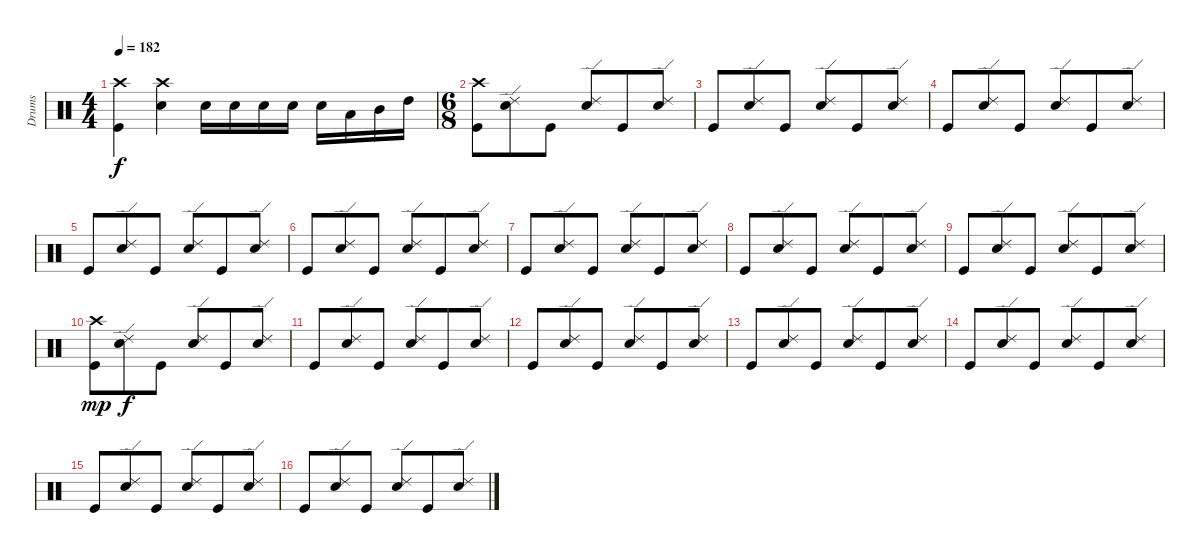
\track ("Drums" "Drums") {instrument percussion}
\staff {score}
\articulation defaults
\ts (4 4)
\tempo 182
\clef neutral
\ks c
("Crash high (hit)" "Kick (hit)").4{dy f} ("Crash high (hit)" "Electric Snare (hit)").4 "Electric Snare (hit)".16 "Electric Snare (hit)".16 "Electric Snare (hit)".16 "Electric Snare (hit)".16 "Electric Snare (hit)".16 "Low Tom (hit)".16 "Mid Tom (hit)".16 "High Tom (hit)".16 |
\ts (6 8)
("Crash high (hit)" "Kick (hit)").8 ("Ride (edge) 2" "Electric Snare (hit)").8 "Kick (hit)".8 ("Ride (edge) 2" "Electric Snare (hit)").8 "Kick (hit)".8 ("Ride (edge) 2" "Electric Snare (hit)").8 |
"Kick (hit)".8 ("Ride (edge) 2" "Electric Snare (hit)").8 "Kick (hit)".8 ("Ride (edge) 2" "Electric Snare (hit)").8 "Kick (hit)".8 ("Ride (edge) 2" "Electric Snare (hit)").8 |
"Kick (hit)".8 ("Ride (edge) 2" "Electric Snare (hit)").8 "Kick (hit)".8 ("Ride (edge) 2" "Electric Snare (hit)").8 "Kick (hit)".8 ("Ride (edge) 2" "Electric Snare (hit)").8 |
"Kick (hit)".8 ("Ride (edge) 2" "Electric Snare (hit)").8 "Kick (hit)".8 ("Ride (edge) 2" "Electric Snare (hit)").8 "Kick (hit)".8 ("Ride (edge) 2" "Electric Snare (hit)").8 |
"Kick (hit)".8 ("Ride (edge) 2" "Electric Snare (hit)").8 "Kick (hit)".8 ("Ride (edge) 2" "Electric Snare (hit)").8 "Kick (hit)".8 ("Ride (edge) 2" "Electric Snare (hit)").8 |
"Kick (hit)".8 ("Ride (edge) 2" "Electric Snare (hit)").8 "Kick (hit)".8 ("Ride (edge) 2" "Electric Snare (hit)").8 "Kick (hit)".8 ("Ride (edge) 2" "Electric Snare (hit)").8 |
"Kick (hit)".8 ("Ride (edge) 2" "Electric Snare (hit)").8 "Kick (hit)".8 ("Ride (edge) 2" "Electric Snare (hit)").8 "Kick (hit)".8 ("Ride (edge) 2" "Electric Snare (hit)").8 |
"Kick (hit)".8 ("Ride (edge) 2" "Electric Snare (hit)").8 "Kick (hit)".8 ("Ride (edge) 2" "Electric Snare (hit)").8 "Kick (hit)".8 ("Ride (edge) 2" "Electric Snare (hit)").8 |
("Crash high (hit)" "Kick (hit)").8{dy mp} ("Ride (edge) 2" "Electric Snare (hit)").8{dy f} "Kick (hit)".8 ("Ride (edge) 2" "Electric Snare (hit)").8 "Kick (hit)".8 ("Ride (edge) 2" "Electric Snare (hit)").8 |
"Kick (hit)".8 ("Ride (edge) 2" "Electric Snare (hit)").8 "Kick (hit)".8 ("Ride (edge) 2" "Electric Snare (hit)").8 "Kick (hit)".8 ("Ride (edge) 2" "Electric Snare (hit)").8 |
"Kick (hit)".8 ("Ride (edge) 2" "Electric Snare (hit)").8 "Kick (hit)".8 ("Ride (edge) 2" "Electric Snare (hit)").8 "Kick (hit)".8 ("Ride (edge) 2" "Electric Snare (hit)").8 |
"Kick (hit)".8 ("Ride (edge) 2" "Electric Snare (hit)").8 "Kick (hit)".8 ("Ride (edge) 2" "Electric Snare (hit)").8 "Kick (hit)".8 ("Ride (edge) 2" "Electric Snare (hit)").8 |
"Kick (hit)".8 ("Ride (edge) 2" "Electric Snare (hit)").8 "Kick (hit)".8 ("Ride (edge) 2" "Electric Snare (hit)").8 "Kick (hit)".8 ("Ride (edge) 2" "Electric Snare (hit)").8 |
"Kick (hit)".8 ("Ride (edge) 2" "Electric Snare (hit)").8 "Kick (hit)".8 ("Ride (edge) 2" "Electric Snare (hit)").8 "Kick (hit)".8 ("Ride (edge) 2" "Electric Snare (hit)").8 |
"Kick (hit)".8 ("Ride (edge) 2" "Electric Snare (hit)").8 "Kick (hit)".8 ("Ride (edge) 2" "Electric Snare (hit)").8 "Kick (hit)".8 ("Ride (edge) 2" "Electric Snare (hit)").8
